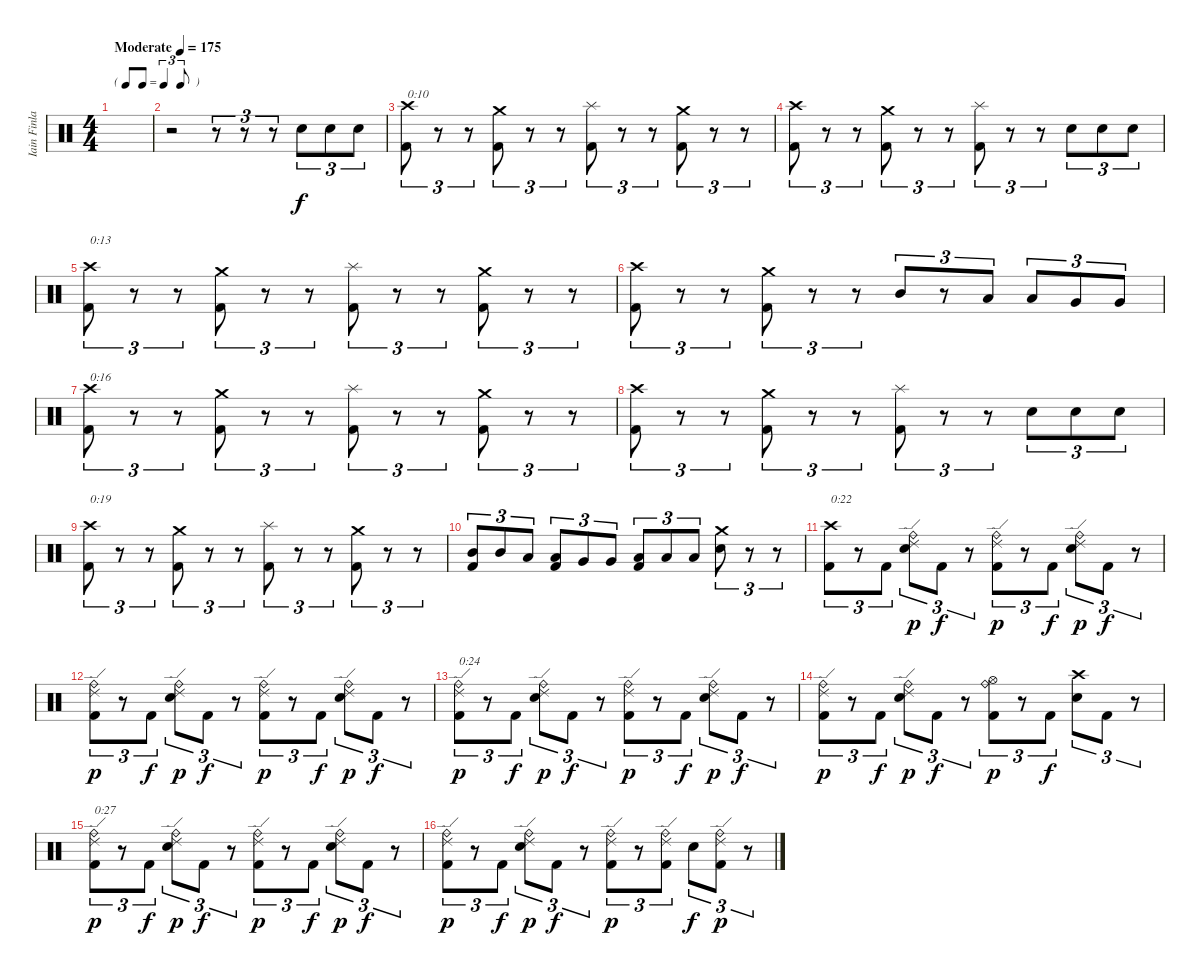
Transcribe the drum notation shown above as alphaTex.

\track ("Iain Finlay" "Iain Finla") {instrument percussion}
\staff {score}
\articulation defaults
\ts (4 4)
\tf triplet8th
\tempo (175 "Moderate")
\clef neutral
\ks c
|
r.2 r.8{tu (3 2)} r.8{tu (3 2)} r.8{tu (3 2)} "Electric Snare (hit)".8{tu (3 2)} "Electric Snare (hit)".8{tu (3 2)} "Electric Snare (hit)".8{tu (3 2)} |
("Crash high (hit)" "Kick (hit) 2").8{tu (3 2) txt "0:10"} r.8{tu (3 2)} r.8{tu (3 2)} ("Crash medium (hit)" "Kick (hit) 2").8{tu (3 2)} r.8{tu (3 2)} r.8{tu (3 2)} ("Splash (hit)" "Kick (hit) 2").8{tu (3 2)} r.8{tu (3 2)} r.8{tu (3 2)} ("Crash medium (hit)" "Kick (hit) 2").8{tu (3 2)} r.8{tu (3 2)} r.8{tu (3 2)} |
("Crash high (hit)" "Kick (hit) 2").8{tu (3 2)} r.8{tu (3 2)} r.8{tu (3 2)} ("Crash medium (hit)" "Kick (hit) 2").8{tu (3 2)} r.8{tu (3 2)} r.8{tu (3 2)} ("Splash (hit)" "Kick (hit) 2").8{tu (3 2)} r.8{tu (3 2)} r.8{tu (3 2)} "Electric Snare (hit)".8{tu (3 2)} "Electric Snare (hit)".8{tu (3 2)} "Electric Snare (hit)".8{tu (3 2)} |
("Crash high (hit)" "Kick (hit) 2").8{tu (3 2) txt "0:13"} r.8{tu (3 2)} r.8{tu (3 2)} ("Crash medium (hit)" "Kick (hit) 2").8{tu (3 2)} r.8{tu (3 2)} r.8{tu (3 2)} ("Splash (hit)" "Kick (hit) 2").8{tu (3 2)} r.8{tu (3 2)} r.8{tu (3 2)} ("Crash medium (hit)" "Kick (hit) 2").8{tu (3 2)} r.8{tu (3 2)} r.8{tu (3 2)} |
("Crash high (hit)" "Kick (hit) 2").8{tu (3 2)} r.8{tu (3 2)} r.8{tu (3 2)} ("Crash medium (hit)" "Kick (hit) 2").8{tu (3 2)} r.8{tu (3 2)} r.8{tu (3 2)} "Mid Tom (hit)".8{tu (3 2)} r.8{tu (3 2)} "Low Tom (hit)".8{tu (3 2)} "Low Tom (hit)".8{tu (3 2)} "Very Low Tom (hit)".8{tu (3 2)} "Very Low Tom (hit)".8{tu (3 2)} |
("Crash high (hit)" "Kick (hit) 2").8{tu (3 2) txt "0:16"} r.8{tu (3 2)} r.8{tu (3 2)} ("Crash medium (hit)" "Kick (hit) 2").8{tu (3 2)} r.8{tu (3 2)} r.8{tu (3 2)} ("Splash (hit)" "Kick (hit) 2").8{tu (3 2)} r.8{tu (3 2)} r.8{tu (3 2)} ("Crash medium (hit)" "Kick (hit) 2").8{tu (3 2)} r.8{tu (3 2)} r.8{tu (3 2)} |
("Crash high (hit)" "Kick (hit) 2").8{tu (3 2)} r.8{tu (3 2)} r.8{tu (3 2)} ("Crash medium (hit)" "Kick (hit) 2").8{tu (3 2)} r.8{tu (3 2)} r.8{tu (3 2)} ("Splash (hit)" "Kick (hit) 2").8{tu (3 2)} r.8{tu (3 2)} r.8{tu (3 2)} "Electric Snare (hit)".8{tu (3 2)} "Electric Snare (hit)".8{tu (3 2)} "Electric Snare (hit)".8{tu (3 2)} |
("Crash high (hit)" "Kick (hit) 2").8{tu (3 2) txt "0:19"} r.8{tu (3 2)} r.8{tu (3 2)} ("Crash medium (hit)" "Kick (hit) 2").8{tu (3 2)} r.8{tu (3 2)} r.8{tu (3 2)} ("Splash (hit)" "Kick (hit) 2").8{tu (3 2)} r.8{tu (3 2)} r.8{tu (3 2)} ("Crash medium (hit)" "Kick (hit) 2").8{tu (3 2)} r.8{tu (3 2)} r.8{tu (3 2)} |
("Mid Tom (hit)" "Kick (hit) 2").8{tu (3 2)} "Mid Tom (hit)".8{tu (3 2)} "Low Tom (hit)".8{tu (3 2)} ("Low Tom (hit)" "Kick (hit) 2").8{tu (3 2)} "Very Low Tom (hit)".8{tu (3 2)} "Very Low Tom (hit)".8{tu (3 2)} ("Low Floor Tom (hit)" "Kick (hit) 2").8{tu (3 2)} "Low Floor Tom (hit)".8{tu (3 2)} "Low Floor Tom (hit)".8{tu (3 2)} ("Crash medium (hit)" "Electric Snare (hit)").8{tu (3 2)} r.8{tu (3 2)} r.8{tu (3 2)} |
("Crash high (hit)" "Kick (hit) 2").8{tu (3 2) txt "0:22"} r.8{tu (3 2)} "Kick (hit) 2".8{tu (3 2)} ("Ride (edge) 2" "Ride (bell)" "Electric Snare (hit)").8{tu (3 2) dy p} "Kick (hit) 2".8{tu (3 2) dy f} r.8{tu (3 2)} ("Ride (edge) 2" "Ride (bell)" "Kick (hit) 2").8{tu (3 2) dy p} r.8{tu (3 2)} "Kick (hit) 2".8{tu (3 2) dy f} ("Ride (edge) 2" "Ride (bell)" "Electric Snare (hit)").8{tu (3 2) dy p} "Kick (hit) 2".8{tu (3 2) dy f} r.8{tu (3 2)} |
("Ride (edge) 2" "Ride (bell)" "Kick (hit) 2").8{tu (3 2) dy p} r.8{tu (3 2)} "Kick (hit) 2".8{tu (3 2) dy f} ("Ride (edge) 2" "Ride (bell)" "Electric Snare (hit)").8{tu (3 2) dy p} "Kick (hit) 2".8{tu (3 2) dy f} r.8{tu (3 2)} ("Ride (edge) 2" "Ride (bell)" "Kick (hit) 2").8{tu (3 2) dy p} r.8{tu (3 2)} "Kick (hit) 2".8{tu (3 2) dy f} ("Ride (edge) 2" "Ride (bell)" "Electric Snare (hit)").8{tu (3 2) dy p} "Kick (hit) 2".8{tu (3 2) dy f} r.8{tu (3 2)} |
("Ride (edge) 2" "Ride (bell)" "Kick (hit) 2").8{tu (3 2) txt "0:24" dy p} r.8{tu (3 2)} "Kick (hit) 2".8{tu (3 2) dy f} ("Ride (edge) 2" "Ride (bell)" "Electric Snare (hit)").8{tu (3 2) dy p} "Kick (hit) 2".8{tu (3 2) dy f} r.8{tu (3 2)} ("Ride (edge) 2" "Ride (bell)" "Kick (hit) 2").8{tu (3 2) dy p} r.8{tu (3 2)} "Kick (hit) 2".8{tu (3 2) dy f} ("Ride (edge) 2" "Ride (bell)" "Electric Snare (hit)").8{tu (3 2) dy p} "Kick (hit) 2".8{tu (3 2) dy f} r.8{tu (3 2)} |
("Ride (edge) 2" "Ride (bell)" "Kick (hit) 2").8{tu (3 2) dy p} r.8{tu (3 2)} "Kick (hit) 2".8{tu (3 2) dy f} ("Ride (edge) 2" "Ride (bell)" "Electric Snare (hit)").8{tu (3 2) dy p} "Kick (hit) 2".8{tu (3 2) dy f} r.8{tu (3 2)} ("Hi-Hat (open)" "Ride (bell)" "Kick (hit) 2").8{tu (3 2) dy p} r.8{tu (3 2)} "Kick (hit) 2".8{tu (3 2) dy f} ("Crash high (hit)" "Electric Snare (hit)").8{tu (3 2)} "Kick (hit) 2".8{tu (3 2)} r.8{tu (3 2)} |
("Ride (edge) 2" "Ride (bell)" "Kick (hit) 2").8{tu (3 2) txt "0:27" dy p} r.8{tu (3 2)} "Kick (hit) 2".8{tu (3 2) dy f} ("Ride (edge) 2" "Ride (bell)" "Electric Snare (hit)").8{tu (3 2) dy p} "Kick (hit) 2".8{tu (3 2) dy f} r.8{tu (3 2)} ("Ride (edge) 2" "Ride (bell)" "Kick (hit) 2").8{tu (3 2) dy p} r.8{tu (3 2)} "Kick (hit) 2".8{tu (3 2) dy f} ("Ride (edge) 2" "Ride (bell)" "Electric Snare (hit)").8{tu (3 2) dy p} "Kick (hit) 2".8{tu (3 2) dy f} r.8{tu (3 2)} |
("Ride (edge) 2" "Ride (bell)" "Kick (hit) 2").8{tu (3 2) dy p} r.8{tu (3 2)} "Kick (hit) 2".8{tu (3 2) dy f} ("Ride (edge) 2" "Ride (bell)" "Electric Snare (hit)").8{tu (3 2) dy p} "Kick (hit) 2".8{tu (3 2) dy f} r.8{tu (3 2)} ("Ride (edge) 2" "Ride (bell)" "Kick (hit) 2").8{tu (3 2) dy p} r.8{tu (3 2)} ("Ride (edge) 2" "Ride (bell)" "Kick (hit) 2").8{tu (3 2)} "Electric Snare (hit)".8{tu (3 2) dy f} ("Ride (edge) 2" "Ride (bell)" "Kick (hit) 2").8{tu (3 2) dy p} r.8{tu (3 2)}
